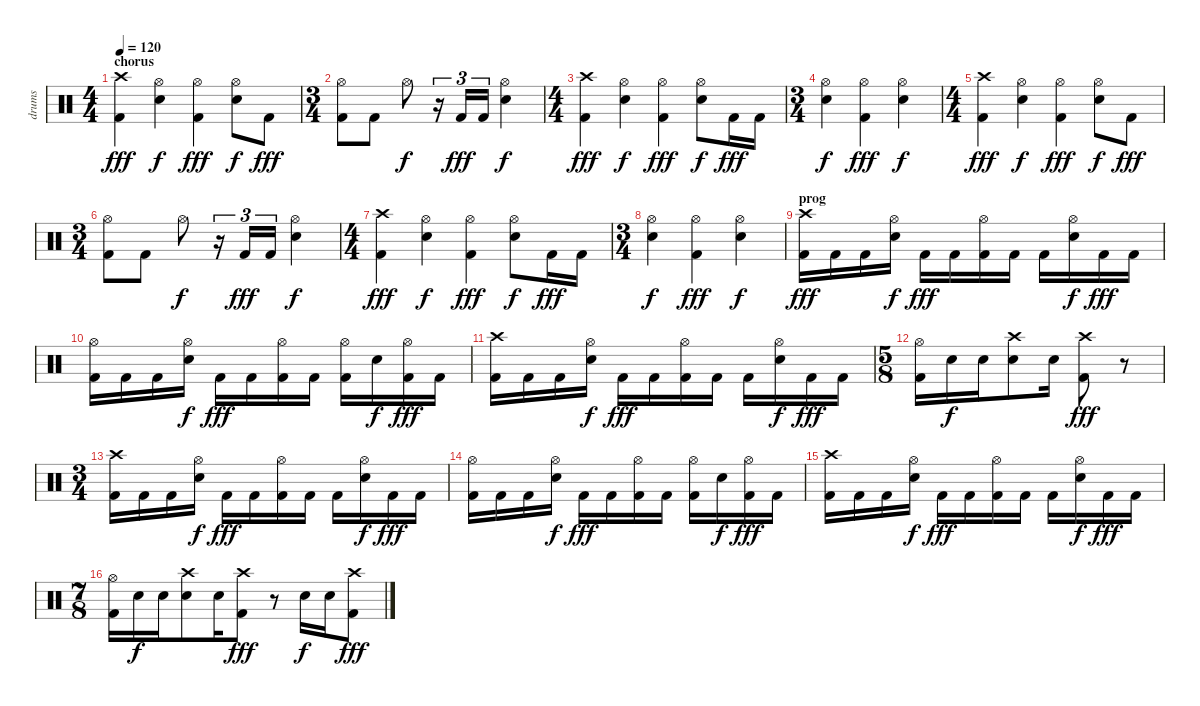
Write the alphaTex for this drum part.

\track ("drums" "drums") {instrument percussion}
\staff {score}
\articulation defaults
\ts (4 4)
\section ("" "chorus")
\tempo 120
\clef neutral
\ks c
("Crash high (hit)" "Kick (hit) 2").4{dy fff} ("Hi-Hat (open)" "Snare (hit) 2").4{dy f} ("Hi-Hat (open)" "Kick (hit) 2").4{dy fff} ("Hi-Hat (open)" "Snare (hit) 2").8{dy f} "Kick (hit) 2".8{dy fff} |
\ts (3 4)
("Hi-Hat (open)" "Kick (hit) 2").8 "Kick (hit) 2".8 "Hi-Hat (open)".8{dy f} r.16{tu (3 2)} "Kick (hit) 2".16{tu (3 2) dy fff} "Kick (hit) 2".16{tu (3 2)} ("Hi-Hat (open)" "Snare (hit) 2").4{dy f} |
\ts (4 4)
("Crash high (hit)" "Kick (hit) 2").4{dy fff} ("Hi-Hat (open)" "Snare (hit) 2").4{dy f} ("Hi-Hat (open)" "Kick (hit) 2").4{dy fff} ("Hi-Hat (open)" "Snare (hit) 2").8{dy f} "Kick (hit) 2".16{dy fff} "Kick (hit) 2".16 |
\ts (3 4)
("Hi-Hat (open)" "Snare (hit) 2").4{dy f} ("Hi-Hat (open)" "Kick (hit) 2").4{dy fff} ("Hi-Hat (open)" "Snare (hit) 2").4{dy f} |
\ts (4 4)
("Crash high (hit)" "Kick (hit) 2").4{dy fff} ("Hi-Hat (open)" "Snare (hit) 2").4{dy f} ("Hi-Hat (open)" "Kick (hit) 2").4{dy fff} ("Hi-Hat (open)" "Snare (hit) 2").8{dy f} "Kick (hit) 2".8{dy fff} |
\ts (3 4)
("Hi-Hat (open)" "Kick (hit) 2").8 "Kick (hit) 2".8 "Hi-Hat (open)".8{dy f} r.16{tu (3 2)} "Kick (hit) 2".16{tu (3 2) dy fff} "Kick (hit) 2".16{tu (3 2)} ("Hi-Hat (open)" "Snare (hit) 2").4{dy f} |
\ts (4 4)
("Crash high (hit)" "Kick (hit) 2").4{dy fff} ("Hi-Hat (open)" "Snare (hit) 2").4{dy f} ("Hi-Hat (open)" "Kick (hit) 2").4{dy fff} ("Hi-Hat (open)" "Snare (hit) 2").8{dy f} "Kick (hit) 2".16{dy fff} "Kick (hit) 2".16 |
\ts (3 4)
("Hi-Hat (open)" "Snare (hit) 2").4{dy f} ("Hi-Hat (open)" "Kick (hit) 2").4{dy fff} ("Hi-Hat (open)" "Snare (hit) 2").4{dy f} |
\section ("" "prog")
("Crash high (hit)" "Kick (hit) 2").16{dy fff} "Kick (hit) 2".16 "Kick (hit) 2".16 ("Hi-Hat (open)" "Snare (hit) 2").16{dy f} "Kick (hit) 2".16{dy fff} "Kick (hit) 2".16 ("Hi-Hat (open)" "Kick (hit) 2").16 "Kick (hit) 2".16 "Kick (hit) 2".16 ("Hi-Hat (open)" "Snare (hit) 2").16{dy f} "Kick (hit) 2".16{dy fff} "Kick (hit) 2".16 |
("Hi-Hat (open)" "Kick (hit) 2").16 "Kick (hit) 2".16 "Kick (hit) 2".16 ("Hi-Hat (open)" "Snare (hit) 2").16{dy f} "Kick (hit) 2".16{dy fff} "Kick (hit) 2".16 ("Hi-Hat (open)" "Kick (hit) 2").16 "Kick (hit) 2".16 ("Hi-Hat (open)" "Kick (hit) 2").16 "Snare (hit) 2".16{dy f} ("Hi-Hat (open)" "Kick (hit) 2").16{dy fff} "Kick (hit) 2".16 |
("Crash high (hit)" "Kick (hit) 2").16 "Kick (hit) 2".16 "Kick (hit) 2".16 ("Hi-Hat (open)" "Snare (hit) 2").16{dy f} "Kick (hit) 2".16{dy fff} "Kick (hit) 2".16 ("Hi-Hat (open)" "Kick (hit) 2").16 "Kick (hit) 2".16 "Kick (hit) 2".16 ("Hi-Hat (open)" "Snare (hit) 2").16{dy f} "Kick (hit) 2".16{dy fff} "Kick (hit) 2".16 |
\ts (5 8)
("Hi-Hat (open)" "Kick (hit) 2").16 "Snare (hit) 2".16{dy f} "Snare (hit) 2".16 ("Crash high (hit)" "Snare (hit) 2").8 "Snare (hit) 2".16 ("Crash high (hit)" "Kick (hit) 2").8{dy fff} r.8 |
\ts (3 4)
("Crash high (hit)" "Kick (hit) 2").16 "Kick (hit) 2".16 "Kick (hit) 2".16 ("Hi-Hat (open)" "Snare (hit) 2").16{dy f} "Kick (hit) 2".16{dy fff} "Kick (hit) 2".16 ("Hi-Hat (open)" "Kick (hit) 2").16 "Kick (hit) 2".16 "Kick (hit) 2".16 ("Hi-Hat (open)" "Snare (hit) 2").16{dy f} "Kick (hit) 2".16{dy fff} "Kick (hit) 2".16 |
("Hi-Hat (open)" "Kick (hit) 2").16 "Kick (hit) 2".16 "Kick (hit) 2".16 ("Hi-Hat (open)" "Snare (hit) 2").16{dy f} "Kick (hit) 2".16{dy fff} "Kick (hit) 2".16 ("Hi-Hat (open)" "Kick (hit) 2").16 "Kick (hit) 2".16 ("Hi-Hat (open)" "Kick (hit) 2").16 "Snare (hit) 2".16{dy f} ("Hi-Hat (open)" "Kick (hit) 2").16{dy fff} "Kick (hit) 2".16 |
("Crash high (hit)" "Kick (hit) 2").16 "Kick (hit) 2".16 "Kick (hit) 2".16 ("Hi-Hat (open)" "Snare (hit) 2").16{dy f} "Kick (hit) 2".16{dy fff} "Kick (hit) 2".16 ("Hi-Hat (open)" "Kick (hit) 2").16 "Kick (hit) 2".16 "Kick (hit) 2".16 ("Hi-Hat (open)" "Snare (hit) 2").16{dy f} "Kick (hit) 2".16{dy fff} "Kick (hit) 2".16 |
\ts (7 8)
("Hi-Hat (open)" "Kick (hit) 2").16 "Snare (hit) 2".16{dy f} "Snare (hit) 2".16 ("Crash high (hit)" "Snare (hit) 2").8 "Snare (hit) 2".16 ("Crash high (hit)" "Kick (hit) 2").8{dy fff} r.8 "Snare (hit) 2".16{dy f} "Snare (hit) 2".16 ("Crash high (hit)" "Kick (hit) 2").8{dy fff}
